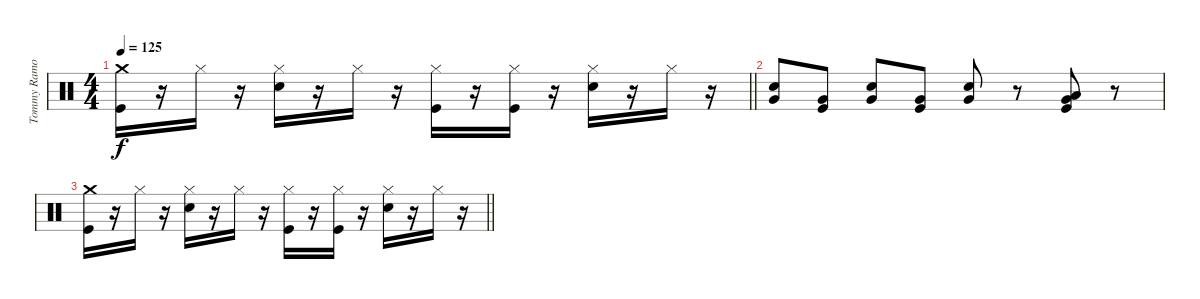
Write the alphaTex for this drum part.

\track ("Tommy Ramone" "Tommy Ramo") {instrument percussion}
\staff {score}
\articulation defaults
\ts (4 4)
\tempo 125
\clef neutral
\barLineRight lightlight
\ks c
("Crash medium (hit)" "Kick (hit)").16{dy f} r.16 "Hi-Hat (closed)".16 r.16 ("Hi-Hat (closed)" "Snare (hit) 2").16 r.16 "Hi-Hat (closed)".16 r.16 ("Hi-Hat (closed)" "Kick (hit)").16 r.16 ("Hi-Hat (closed)" "Kick (hit)").16 r.16 ("Hi-Hat (closed)" "Snare (hit) 2").16 r.16 "Hi-Hat (closed)".16 r.16 |
("Very Low Tom (hit)" "Snare (hit) 2").8 ("Very Low Tom (hit)" "Kick (hit)").8 ("Very Low Tom (hit)" "Snare (hit) 2").8 ("Very Low Tom (hit)" "Kick (hit)").8 ("Very Low Tom (hit)" "Snare (hit) 2").8 r.8 ("Low Tom (hit)" "Very Low Tom (hit)" "Kick (hit)").8 r.8 |
\barLineRight lightlight
("Crash medium (hit)" "Kick (hit)").16 r.16 "Hi-Hat (closed)".16 r.16 ("Hi-Hat (closed)" "Snare (hit) 2").16 r.16 "Hi-Hat (closed)".16 r.16 ("Hi-Hat (closed)" "Kick (hit)").16 r.16 ("Hi-Hat (closed)" "Kick (hit)").16 r.16 ("Hi-Hat (closed)" "Snare (hit) 2").16 r.16 "Hi-Hat (closed)".16 r.16
